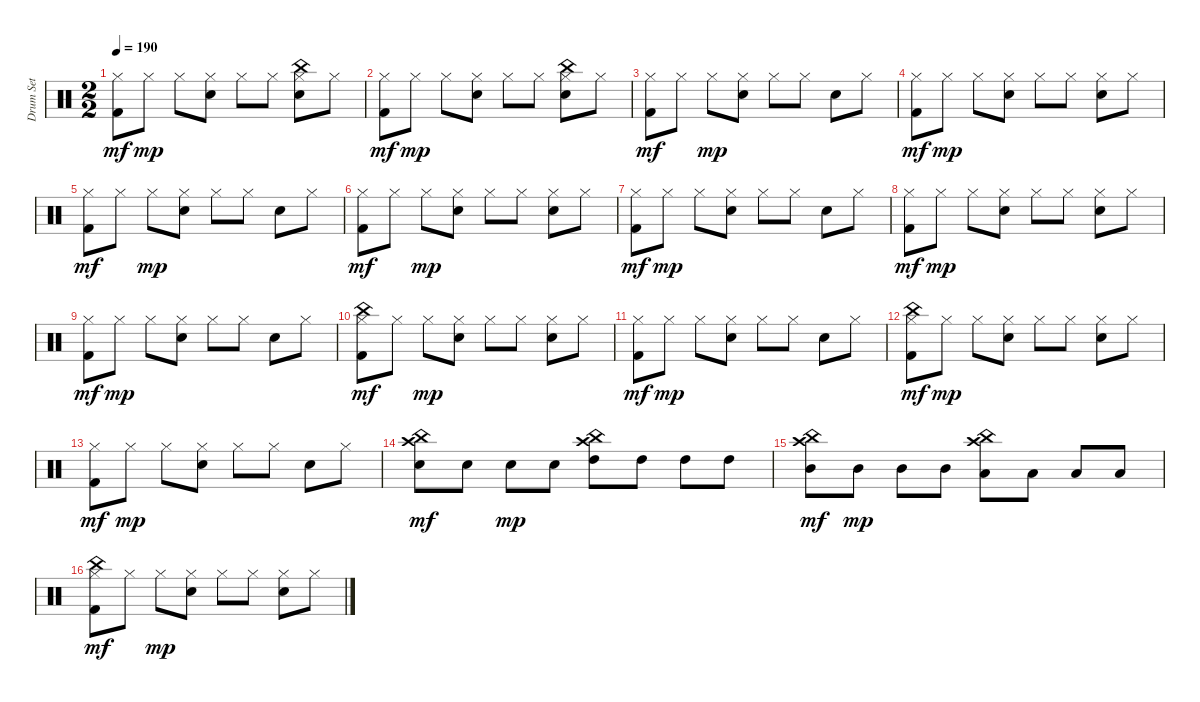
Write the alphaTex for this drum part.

\track ("Drum Set" "Drum Set") {instrument percussion}
\staff {score}
\articulation defaults
\ts (2 2)
\tempo 190
\clef neutral
\ks c
("Kick (hit) 2" "Hi-Hat (closed)").8{dy mf} "Hi-Hat (closed)".8{dy mp} "Hi-Hat (closed)".8 ("Snare (hit) 2" "Hi-Hat (closed)").8 "Hi-Hat (closed)".8 "Hi-Hat (closed)".8 ("Snare (hit) 2" "China (hit)" "Hi-Hat (closed)").8 "Hi-Hat (closed)".8 |
("Kick (hit) 2" "Hi-Hat (closed)").8{dy mf} "Hi-Hat (closed)".8{dy mp} "Hi-Hat (closed)".8 ("Snare (hit) 2" "Hi-Hat (closed)").8 "Hi-Hat (closed)".8 "Hi-Hat (closed)".8 ("Snare (hit) 2" "Hi-Hat (closed)" "China (hit)").8 "Hi-Hat (closed)".8 |
("Kick (hit) 2" "Hi-Hat (closed)").8{dy mf} "Hi-Hat (closed)".8 "Hi-Hat (closed)".8{dy mp} ("Snare (hit) 2" "Hi-Hat (closed)").8 "Hi-Hat (closed)".8 "Hi-Hat (closed)".8 "Snare (hit) 2".8 "Hi-Hat (closed)".8 |
("Kick (hit) 2" "Hi-Hat (closed)").8{dy mf} "Hi-Hat (closed)".8{dy mp} "Hi-Hat (closed)".8 ("Snare (hit) 2" "Hi-Hat (closed)").8 "Hi-Hat (closed)".8 "Hi-Hat (closed)".8 ("Snare (hit) 2" "Hi-Hat (closed)").8 "Hi-Hat (closed)".8 |
("Kick (hit) 2" "Hi-Hat (closed)").8{dy mf} "Hi-Hat (closed)".8 "Hi-Hat (closed)".8{dy mp} ("Snare (hit) 2" "Hi-Hat (closed)").8 "Hi-Hat (closed)".8 "Hi-Hat (closed)".8 "Snare (hit) 2".8 "Hi-Hat (closed)".8 |
("Kick (hit) 2" "Hi-Hat (closed)").8{dy mf} "Hi-Hat (closed)".8 "Hi-Hat (closed)".8{dy mp} ("Snare (hit) 2" "Hi-Hat (closed)").8 "Hi-Hat (closed)".8 "Hi-Hat (closed)".8 ("Snare (hit) 2" "Hi-Hat (closed)").8 "Hi-Hat (closed)".8 |
("Kick (hit) 2" "Hi-Hat (closed)").8{dy mf} "Hi-Hat (closed)".8{dy mp} "Hi-Hat (closed)".8 ("Snare (hit) 2" "Hi-Hat (closed)").8 "Hi-Hat (closed)".8 "Hi-Hat (closed)".8 "Snare (hit) 2".8 "Hi-Hat (closed)".8 |
("Kick (hit) 2" "Hi-Hat (closed)").8{dy mf} "Hi-Hat (closed)".8{dy mp} "Hi-Hat (closed)".8 ("Snare (hit) 2" "Hi-Hat (closed)").8 "Hi-Hat (closed)".8 "Hi-Hat (closed)".8 ("Snare (hit) 2" "Hi-Hat (closed)").8 "Hi-Hat (closed)".8 |
("Kick (hit) 2" "Hi-Hat (closed)").8{dy mf} "Hi-Hat (closed)".8{dy mp} "Hi-Hat (closed)".8 ("Snare (hit) 2" "Hi-Hat (closed)").8 "Hi-Hat (closed)".8 "Hi-Hat (closed)".8 "Snare (hit) 2".8 "Hi-Hat (closed)".8 |
("Kick (hit) 2" "Hi-Hat (closed)" "China (hit)").8{dy mf} "Hi-Hat (closed)".8 "Hi-Hat (closed)".8{dy mp} ("Snare (hit) 2" "Hi-Hat (closed)").8 "Hi-Hat (closed)".8 "Hi-Hat (closed)".8 ("Snare (hit) 2" "Hi-Hat (closed)").8 "Hi-Hat (closed)".8 |
("Kick (hit) 2" "Hi-Hat (closed)").8{dy mf} "Hi-Hat (closed)".8{dy mp} "Hi-Hat (closed)".8 ("Snare (hit) 2" "Hi-Hat (closed)").8 "Hi-Hat (closed)".8 "Hi-Hat (closed)".8 "Snare (hit) 2".8 "Hi-Hat (closed)".8 |
("Kick (hit) 2" "China (hit)" "Hi-Hat (closed)").8{dy mf} "Hi-Hat (closed)".8{dy mp} "Hi-Hat (closed)".8 ("Snare (hit) 2" "Hi-Hat (closed)").8 "Hi-Hat (closed)".8 "Hi-Hat (closed)".8 ("Snare (hit) 2" "Hi-Hat (closed)").8 "Hi-Hat (closed)".8 |
("Kick (hit) 2" "Hi-Hat (closed)").8{dy mf} "Hi-Hat (closed)".8{dy mp} "Hi-Hat (closed)".8 ("Snare (hit) 2" "Hi-Hat (closed)").8 "Hi-Hat (closed)".8 "Hi-Hat (closed)".8 "Snare (hit) 2".8 "Hi-Hat (closed)".8 |
("Crash high (hit)" "Snare (hit) 2" "China (hit)").8{dy mf} "Snare (hit) 2".8 "Snare (hit) 2".8{dy mp} "Snare (hit) 2".8 ("Crash high (hit)" "China (hit)" "High Tom (hit)").8 "High Tom (hit)".8 "High Tom (hit)".8 "High Tom (hit)".8 |
("Crash high (hit)" "China (hit)" "Mid Tom (hit)").8{dy mf} "Mid Tom (hit)".8{dy mp} "Mid Tom (hit)".8 "Mid Tom (hit)".8 ("Crash high (hit)" "Low Tom (hit)" "China (hit)").8 "Low Tom (hit)".8 "Low Tom (hit)".8 "Low Tom (hit)".8 |
("Kick (hit) 2" "Hi-Hat (closed)" "China (hit)").8{dy mf} "Hi-Hat (closed)".8 "Hi-Hat (closed)".8{dy mp} ("Snare (hit) 2" "Hi-Hat (closed)").8 "Hi-Hat (closed)".8 "Hi-Hat (closed)".8 ("Snare (hit) 2" "Hi-Hat (closed)").8 "Hi-Hat (closed)".8
